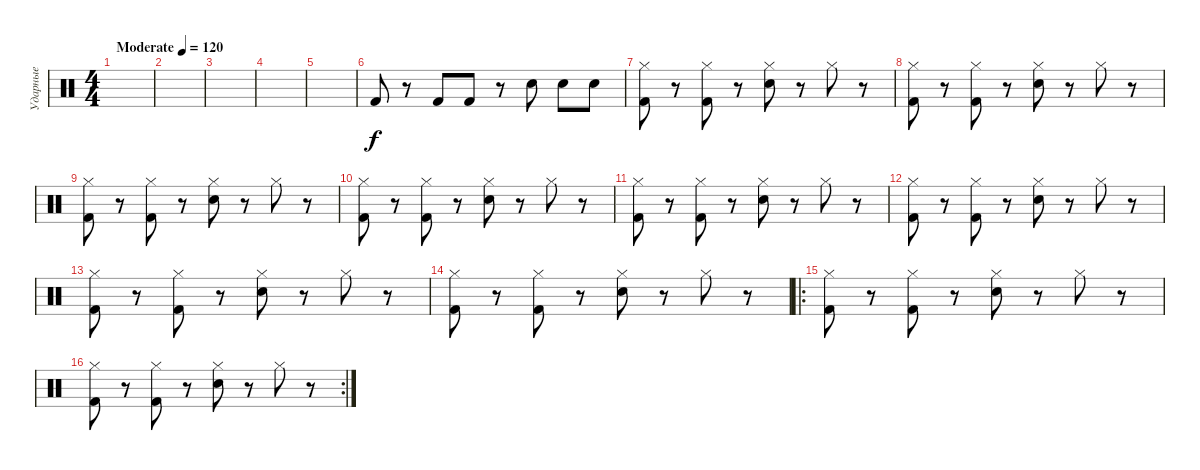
\track ("Ударные" "Ударные") {instrument percussion}
\staff {score}
\articulation defaults
\ts (4 4)
\tempo (120 "Moderate")
\clef neutral
\ks c
|
|
|
|
|
"Kick (hit) 2".8 r.8 "Kick (hit) 2".8 "Kick (hit) 2".8 r.8 "Electric Snare (hit)".8 "Electric Snare (hit)".8 "Electric Snare (hit)".8 |
("Hi-Hat (closed)" "Kick (hit) 2").8 r.8 ("Hi-Hat (closed)" "Kick (hit) 2").8 r.8 ("Hi-Hat (closed)" "Electric Snare (hit)").8 r.8 "Hi-Hat (closed)".8 r.8 |
("Hi-Hat (closed)" "Kick (hit) 2").8 r.8 ("Hi-Hat (closed)" "Kick (hit) 2").8 r.8 ("Hi-Hat (closed)" "Electric Snare (hit)").8 r.8 "Hi-Hat (closed)".8 r.8 |
("Hi-Hat (closed)" "Kick (hit) 2").8 r.8 ("Hi-Hat (closed)" "Kick (hit) 2").8 r.8 ("Hi-Hat (closed)" "Electric Snare (hit)").8 r.8 "Hi-Hat (closed)".8 r.8 |
("Hi-Hat (closed)" "Kick (hit) 2").8 r.8 ("Hi-Hat (closed)" "Kick (hit) 2").8 r.8 ("Hi-Hat (closed)" "Electric Snare (hit)").8 r.8 "Hi-Hat (closed)".8 r.8 |
("Hi-Hat (closed)" "Kick (hit) 2").8 r.8 ("Hi-Hat (closed)" "Kick (hit) 2").8 r.8 ("Hi-Hat (closed)" "Electric Snare (hit)").8 r.8 "Hi-Hat (closed)".8 r.8 |
("Hi-Hat (closed)" "Kick (hit) 2").8 r.8 ("Hi-Hat (closed)" "Kick (hit) 2").8 r.8 ("Hi-Hat (closed)" "Electric Snare (hit)").8 r.8 "Hi-Hat (closed)".8 r.8 |
("Hi-Hat (closed)" "Kick (hit) 2").8 r.8 ("Hi-Hat (closed)" "Kick (hit) 2").8 r.8 ("Hi-Hat (closed)" "Electric Snare (hit)").8 r.8 "Hi-Hat (closed)".8 r.8 |
("Hi-Hat (closed)" "Kick (hit) 2").8 r.8 ("Hi-Hat (closed)" "Kick (hit) 2").8 r.8 ("Hi-Hat (closed)" "Electric Snare (hit)").8 r.8 "Hi-Hat (closed)".8 r.8 |
\ro
("Hi-Hat (closed)" "Kick (hit) 2").8 r.8 ("Hi-Hat (closed)" "Kick (hit) 2").8 r.8 ("Hi-Hat (closed)" "Electric Snare (hit)").8 r.8 "Hi-Hat (closed)".8 r.8 |
\rc 2
("Hi-Hat (closed)" "Kick (hit) 2").8 r.8 ("Hi-Hat (closed)" "Kick (hit) 2").8 r.8 ("Hi-Hat (closed)" "Electric Snare (hit)").8 r.8 "Hi-Hat (closed)".8 r.8
